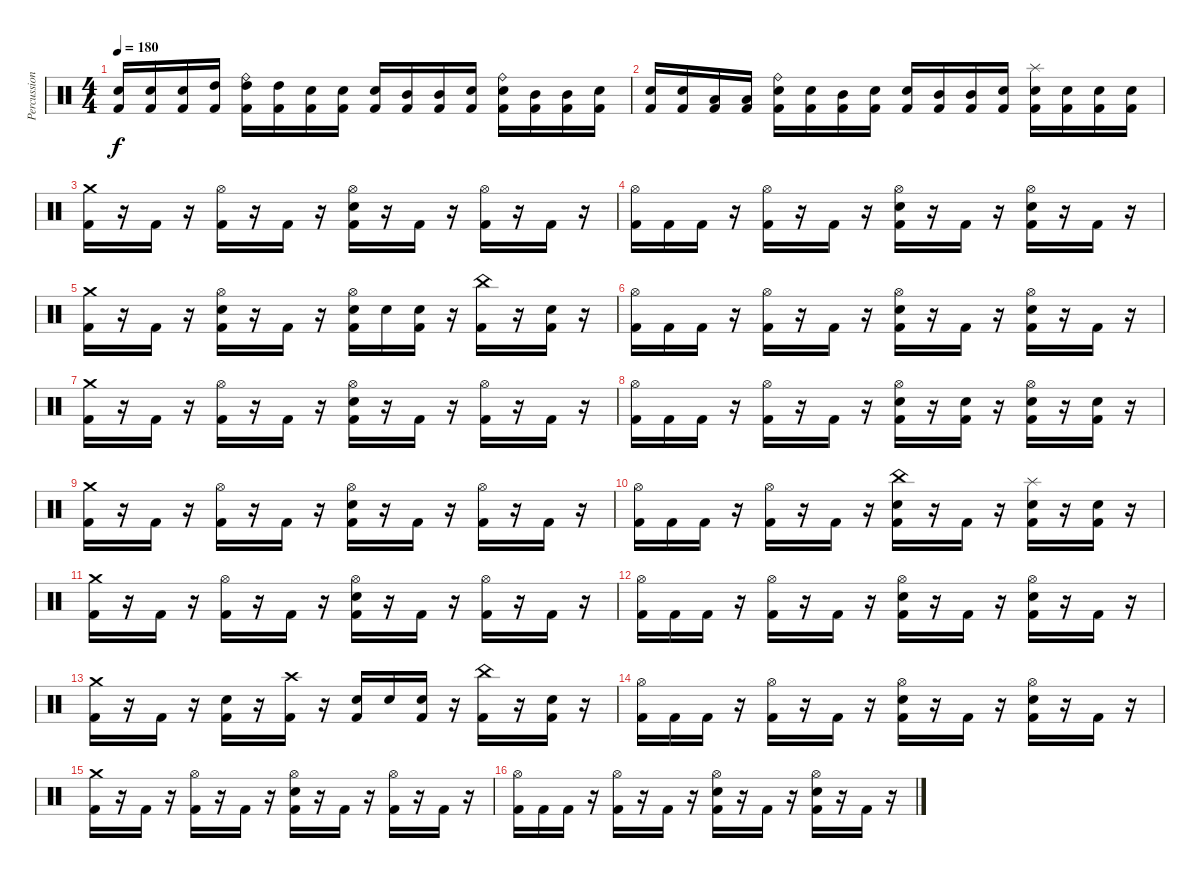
\track ("Percussion" "Percussion") {instrument percussion}
\staff {score}
\articulation defaults
\ts (4 4)
\tempo 180
\clef neutral
\ks c
("Electric Snare (hit)" "Kick (hit) 2").16{dy f} ("Electric Snare (hit)" "Kick (hit) 2").16 ("Electric Snare (hit)" "Kick (hit) 2").16 ("High Tom (hit)" "Kick (hit) 2").16 ("Ride (bell)" "High Tom (hit)" "Kick (hit) 2").16 ("High Tom (hit)" "Kick (hit) 2").16 ("Electric Snare (hit)" "Kick (hit) 2").16 ("Electric Snare (hit)" "Kick (hit) 2").16 ("Electric Snare (hit)" "Kick (hit) 2").16 ("Mid Tom (hit)" "Kick (hit) 2").16 ("Mid Tom (hit)" "Kick (hit) 2").16 ("Electric Snare (hit)" "Kick (hit) 2").16 ("Ride (bell)" "Electric Snare (hit)" "Kick (hit) 2").16 ("Mid Tom (hit)" "Kick (hit) 2").16 ("Mid Tom (hit)" "Kick (hit) 2").16 ("Electric Snare (hit)" "Kick (hit) 2").16 |
("Electric Snare (hit)" "Kick (hit) 2").16 ("Electric Snare (hit)" "Kick (hit) 2").16 ("Low Tom (hit)" "Kick (hit) 2").16 ("Low Tom (hit)" "Kick (hit) 2").16 ("Ride (bell)" "Electric Snare (hit)" "Kick (hit) 2").16 ("Electric Snare (hit)" "Kick (hit) 2").16 ("Mid Tom (hit)" "Kick (hit) 2").16 ("Electric Snare (hit)" "Kick (hit) 2").16 ("Electric Snare (hit)" "Kick (hit) 2").16 ("Mid Tom (hit)" "Kick (hit) 2").16 ("Mid Tom (hit)" "Kick (hit) 2").16 ("Electric Snare (hit)" "Kick (hit) 2").16 ("Splash (hit)" "Electric Snare (hit)" "Kick (hit) 2").16 ("Electric Snare (hit)" "Kick (hit) 2").16 ("Electric Snare (hit)" "Kick (hit) 2").16 ("Electric Snare (hit)" "Kick (hit) 2").16 |
("Crash medium (hit)" "Kick (hit) 2").16 r.16 "Kick (hit) 2".16 r.16 ("Hi-Hat (open)" "Kick (hit) 2").16 r.16 "Kick (hit) 2".16 r.16 ("Hi-Hat (open)" "Electric Snare (hit)" "Kick (hit) 2").16 r.16 "Kick (hit) 2".16 r.16 ("Hi-Hat (open)" "Kick (hit) 2").16 r.16 "Kick (hit) 2".16 r.16 |
("Hi-Hat (open)" "Kick (hit) 2").16 "Kick (hit) 2".16 "Kick (hit) 2".16 r.16 ("Hi-Hat (open)" "Kick (hit) 2").16 r.16 "Kick (hit) 2".16 r.16 ("Hi-Hat (open)" "Electric Snare (hit)" "Kick (hit) 2").16 r.16 "Kick (hit) 2".16 r.16 ("Hi-Hat (open)" "Electric Snare (hit)" "Kick (hit) 2").16 r.16 "Kick (hit) 2".16 r.16 |
("Crash medium (hit)" "Kick (hit) 2").16 r.16 "Kick (hit) 2".16 r.16 ("Hi-Hat (open)" "Electric Snare (hit)" "Kick (hit) 2").16 r.16 "Kick (hit) 2".16 r.16 ("Hi-Hat (open)" "Electric Snare (hit)" "Kick (hit) 2").16 "Electric Snare (hit)".16 ("Electric Snare (hit)" "Kick (hit) 2").16 r.16 ("China (hit)" "Kick (hit) 2").16 r.16 ("Electric Snare (hit)" "Kick (hit) 2").16 r.16 |
("Hi-Hat (open)" "Kick (hit) 2").16 "Kick (hit) 2".16 "Kick (hit) 2".16 r.16 ("Hi-Hat (open)" "Kick (hit) 2").16 r.16 "Kick (hit) 2".16 r.16 ("Hi-Hat (open)" "Electric Snare (hit)" "Kick (hit) 2").16 r.16 "Kick (hit) 2".16 r.16 ("Hi-Hat (open)" "Electric Snare (hit)" "Kick (hit) 2").16 r.16 "Kick (hit) 2".16 r.16 |
("Crash medium (hit)" "Kick (hit) 2").16 r.16 "Kick (hit) 2".16 r.16 ("Hi-Hat (open)" "Kick (hit) 2").16 r.16 "Kick (hit) 2".16 r.16 ("Hi-Hat (open)" "Electric Snare (hit)" "Kick (hit) 2").16 r.16 "Kick (hit) 2".16 r.16 ("Hi-Hat (open)" "Kick (hit) 2").16 r.16 "Kick (hit) 2".16 r.16 |
("Hi-Hat (open)" "Kick (hit) 2").16 "Kick (hit) 2".16 "Kick (hit) 2".16 r.16 ("Hi-Hat (open)" "Kick (hit) 2").16 r.16 "Kick (hit) 2".16 r.16 ("Hi-Hat (open)" "Electric Snare (hit)" "Kick (hit) 2").16 r.16 ("Electric Snare (hit)" "Kick (hit) 2").16 r.16 ("Hi-Hat (open)" "Electric Snare (hit)" "Kick (hit) 2").16 r.16 ("Electric Snare (hit)" "Kick (hit) 2").16 r.16 |
("Crash medium (hit)" "Kick (hit) 2").16 r.16 "Kick (hit) 2".16 r.16 ("Hi-Hat (open)" "Kick (hit) 2").16 r.16 "Kick (hit) 2".16 r.16 ("Hi-Hat (open)" "Electric Snare (hit)" "Kick (hit) 2").16 r.16 "Kick (hit) 2".16 r.16 ("Hi-Hat (open)" "Kick (hit) 2").16 r.16 "Kick (hit) 2".16 r.16 |
("Hi-Hat (open)" "Kick (hit) 2").16 "Kick (hit) 2".16 "Kick (hit) 2".16 r.16 ("Hi-Hat (open)" "Kick (hit) 2").16 r.16 "Kick (hit) 2".16 r.16 ("China (hit)" "Electric Snare (hit)" "Kick (hit) 2").16 r.16 "Kick (hit) 2".16 r.16 ("Splash (hit)" "Electric Snare (hit)" "Kick (hit) 2").16 r.16 ("Electric Snare (hit)" "Kick (hit) 2").16 r.16 |
("Crash medium (hit)" "Kick (hit) 2").16 r.16 "Kick (hit) 2".16 r.16 ("Hi-Hat (open)" "Kick (hit) 2").16 r.16 "Kick (hit) 2".16 r.16 ("Hi-Hat (open)" "Electric Snare (hit)" "Kick (hit) 2").16 r.16 "Kick (hit) 2".16 r.16 ("Hi-Hat (open)" "Kick (hit) 2").16 r.16 "Kick (hit) 2".16 r.16 |
("Hi-Hat (open)" "Kick (hit) 2").16 "Kick (hit) 2".16 "Kick (hit) 2".16 r.16 ("Hi-Hat (open)" "Kick (hit) 2").16 r.16 "Kick (hit) 2".16 r.16 ("Hi-Hat (open)" "Electric Snare (hit)" "Kick (hit) 2").16 r.16 "Kick (hit) 2".16 r.16 ("Hi-Hat (open)" "Electric Snare (hit)" "Kick (hit) 2").16 r.16 "Kick (hit) 2".16 r.16 |
("Crash medium (hit)" "Kick (hit) 2").16 r.16 "Kick (hit) 2".16 r.16 ("Electric Snare (hit)" "Kick (hit) 2").16 r.16 ("Crash high (hit)" "Kick (hit) 2").16 r.16 ("Electric Snare (hit)" "Kick (hit) 2").16 "Electric Snare (hit)".16 ("Electric Snare (hit)" "Kick (hit) 2").16 r.16 ("China (hit)" "Kick (hit) 2").16 r.16 ("Electric Snare (hit)" "Kick (hit) 2").16 r.16 |
("Hi-Hat (open)" "Kick (hit) 2").16 "Kick (hit) 2".16 "Kick (hit) 2".16 r.16 ("Hi-Hat (open)" "Kick (hit) 2").16 r.16 "Kick (hit) 2".16 r.16 ("Hi-Hat (open)" "Electric Snare (hit)" "Kick (hit) 2").16 r.16 "Kick (hit) 2".16 r.16 ("Hi-Hat (open)" "Electric Snare (hit)" "Kick (hit) 2").16 r.16 "Kick (hit) 2".16 r.16 |
("Crash medium (hit)" "Kick (hit) 2").16 r.16 "Kick (hit) 2".16 r.16 ("Hi-Hat (open)" "Kick (hit) 2").16 r.16 "Kick (hit) 2".16 r.16 ("Hi-Hat (open)" "Electric Snare (hit)" "Kick (hit) 2").16 r.16 "Kick (hit) 2".16 r.16 ("Hi-Hat (open)" "Kick (hit) 2").16 r.16 "Kick (hit) 2".16 r.16 |
("Hi-Hat (open)" "Kick (hit) 2").16 "Kick (hit) 2".16 "Kick (hit) 2".16 r.16 ("Hi-Hat (open)" "Kick (hit) 2").16 r.16 "Kick (hit) 2".16 r.16 ("Hi-Hat (open)" "Electric Snare (hit)" "Kick (hit) 2").16 r.16 "Kick (hit) 2".16 r.16 ("Hi-Hat (open)" "Electric Snare (hit)" "Kick (hit) 2").16 r.16 "Kick (hit) 2".16 r.16
